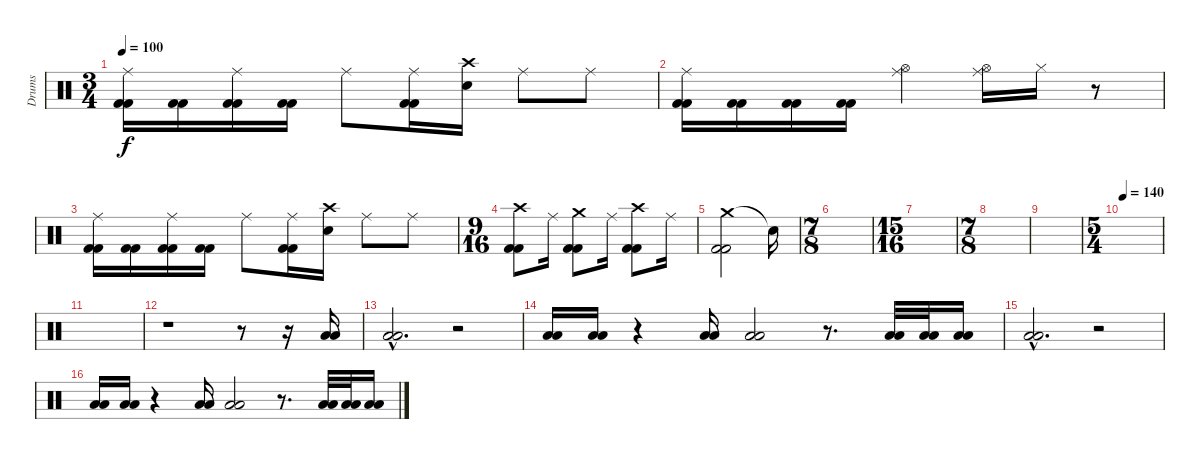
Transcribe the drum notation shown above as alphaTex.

\track ("Drums" "Drums") {instrument percussion}
\staff {score}
\articulation defaults
\ts (3 4)
\tempo 100
\clef neutral
\ks c
("Ride (middle)" "Kick (hit) 2" "Kick (hit) 2").16{dy f} ("Kick (hit) 2" "Kick (hit) 2").16 ("Ride (middle)" "Kick (hit) 2" "Kick (hit) 2").16 ("Kick (hit) 2" "Kick (hit) 2").16 "Ride (middle)".8 ("Ride (middle)" "Kick (hit) 2" "Kick (hit) 2").16 ("Crash high (hit)" "Snare (hit) 2").16 "Ride (middle)".8 "Ride (middle)".8 |
("Ride (middle)" "Kick (hit) 2" "Kick (hit) 2").16 ("Kick (hit) 2" "Kick (hit) 2").16 ("Kick (hit) 2" "Kick (hit) 2").16 ("Kick (hit) 2" "Kick (hit) 2").16 ("Ride (middle)" "Hi-Hat (open)").4 ("Ride (middle)" "Hi-Hat (open)").16 "Hi-Hat (closed)".16 r.8 |
("Ride (middle)" "Kick (hit) 2" "Kick (hit) 2").16 ("Kick (hit) 2" "Kick (hit) 2").16 ("Ride (middle)" "Kick (hit) 2" "Kick (hit) 2").16 ("Kick (hit) 2" "Kick (hit) 2").16 "Ride (middle)".8 ("Ride (middle)" "Kick (hit) 2" "Kick (hit) 2").16 ("Crash high (hit)" "Snare (hit) 2").16 "Ride (middle)".8 "Ride (middle)".8 |
\ts (9 16)
("Crash high (hit)" "Kick (hit) 2" "Kick (hit) 2").8 "Ride (middle)".16 ("Crash medium (hit)" "Kick (hit) 2" "Kick (hit) 2").8 "Ride (middle)".16 ("Crash high (hit)" "Kick (hit) 2" "Kick (hit) 2").8 "Ride (middle)".16 |
("Crash medium (hit)" "Kick (hit) 2" "Kick (hit) 2").2 "Snare (hit)"{t}.16 |
\ts (7 8)
|
\ts (15 16)
|
\ts (7 8)
|
|
\ts (5 4)
\tempo 140
|
|
r.1 r.8 r.16 ("Low Floor Tom (hit)" "Low Floor Tom (hit)").16 |
("Low Floor Tom (hit)"{hac} "Low Floor Tom (hit)"{hac}).2{d} r.2 |
("Low Floor Tom (hit)" "Low Floor Tom (hit)").16 ("Low Floor Tom (hit)" "Low Floor Tom (hit)").16 r.4 ("Low Floor Tom (hit)" "Low Floor Tom (hit)").16 ("Low Floor Tom (hit)" "Low Floor Tom (hit)").2 r.8{d} ("Low Floor Tom (hit)" "Low Floor Tom (hit)").32 ("Low Floor Tom (hit)" "Low Floor Tom (hit)").32 ("Low Floor Tom (hit)" "Low Floor Tom (hit)").16 |
("Low Floor Tom (hit)"{hac} "Low Floor Tom (hit)"{hac}).2{d} r.2 |
("Low Floor Tom (hit)" "Low Floor Tom (hit)").16 ("Low Floor Tom (hit)" "Low Floor Tom (hit)").16 r.4 ("Low Floor Tom (hit)" "Low Floor Tom (hit)").16 ("Low Floor Tom (hit)" "Low Floor Tom (hit)").2 r.8{d} ("Low Floor Tom (hit)" "Low Floor Tom (hit)").32 ("Low Floor Tom (hit)" "Low Floor Tom (hit)").32 ("Low Floor Tom (hit)" "Low Floor Tom (hit)").16
